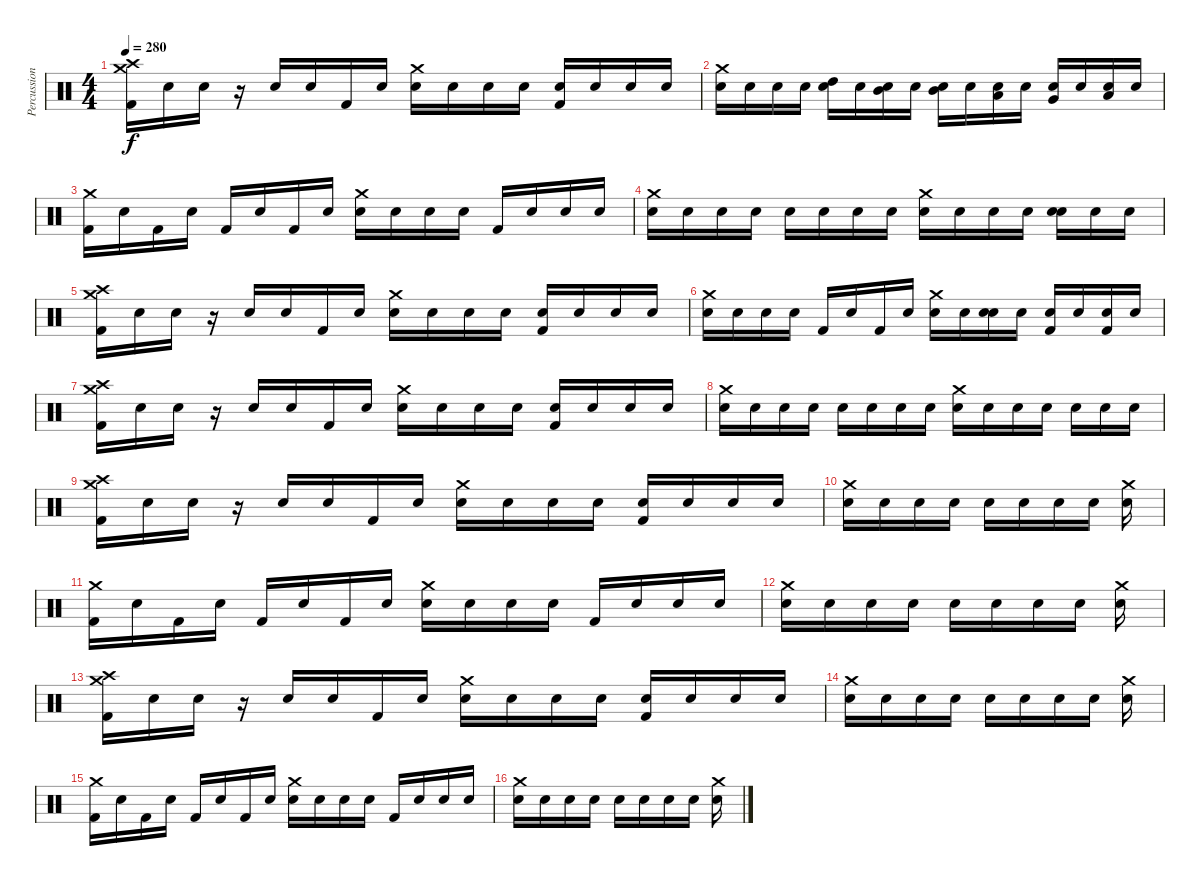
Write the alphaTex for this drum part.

\track ("Percussion" "Percussion") {instrument percussion}
\staff {score}
\articulation defaults
\ts (4 4)
\tempo 280
\clef neutral
\ks c
("Crash high (hit)" "Crash medium (hit)" "Kick (hit) 2").16{dy f} "Snare (hit)".16 "Snare (hit)".16 r.16 "Snare (hit)".16 "Snare (hit)".16 "Kick (hit) 2".16 "Snare (hit)".16 ("Crash medium (hit)" "Snare (hit)").16 "Snare (hit)".16 "Snare (hit)".16 "Snare (hit)".16 ("Kick (hit) 2" "Snare (hit)").16 "Snare (hit)".16 "Snare (hit)".16 "Snare (hit)".16 |
("Snare (hit) 2" "Crash medium (hit)").16 "Snare (hit)".16 "Snare (hit)".16 "Snare (hit)".16 ("High Tom (hit)" "Snare (hit)").16 "Snare (hit)".16 ("Mid Tom (hit)" "Snare (hit)").16 "Snare (hit)".16 ("Mid Tom (hit)" "Snare (hit)").16 "Snare (hit)".16 ("Low Tom (hit)" "Snare (hit)").16 "Snare (hit)".16 ("Very Low Tom (hit)" "Snare (hit)").16 "Snare (hit)".16 ("Low Floor Tom (hit)" "Snare (hit)").16 "Snare (hit)".16 |
("Crash medium (hit)" "Kick (hit) 2").16 "Snare (hit)".16 "Kick (hit) 2".16 "Snare (hit)".16 "Kick (hit) 2".16 "Snare (hit)".16 "Kick (hit) 2".16 "Snare (hit)".16 ("Crash medium (hit)" "Snare (hit)").16 "Snare (hit)".16 "Snare (hit)".16 "Snare (hit)".16 "Kick (hit) 2".16 "Snare (hit)".16 "Snare (hit)".16 "Snare (hit)".16 |
("Crash medium (hit)" "Snare (hit) 2").16 "Snare (hit)".16 "Snare (hit)".16 "Snare (hit)".16 "Snare (hit)".16 "Snare (hit)".16 "Snare (hit)".16 "Snare (hit)".16 ("Crash medium (hit)" "Snare (hit)").16 "Snare (hit)".16 "Snare (hit)".16 "Snare (hit)".16 ("Snare (hit) 2" "Snare (hit)").16 "Snare (hit)".16 "Snare (hit) 2".16 |
("Crash high (hit)" "Crash medium (hit)" "Kick (hit) 2").16 "Snare (hit)".16 "Snare (hit)".16 r.16 "Snare (hit)".16 "Snare (hit)".16 "Kick (hit) 2".16 "Snare (hit)".16 ("Crash medium (hit)" "Snare (hit)").16 "Snare (hit)".16 "Snare (hit)".16 "Snare (hit)".16 ("Kick (hit) 2" "Snare (hit)").16 "Snare (hit)".16 "Snare (hit)".16 "Snare (hit)".16 |
("Snare (hit) 2" "Crash medium (hit)").16 "Snare (hit)".16 "Snare (hit) 2".16 "Snare (hit)".16 "Kick (hit) 2".16 "Snare (hit)".16 "Kick (hit) 2".16 "Snare (hit)".16 ("Snare (hit) 2" "Crash medium (hit)").16 "Snare (hit)".16 ("Snare (hit) 2" "Snare (hit)").16 "Snare (hit)".16 ("Kick (hit) 2" "Snare (hit)").16 "Snare (hit)".16 ("Kick (hit) 2" "Snare (hit)").16 "Snare (hit)".16 |
("Crash high (hit)" "Crash medium (hit)" "Kick (hit) 2").16 "Snare (hit)".16 "Snare (hit)".16 r.16 "Snare (hit)".16 "Snare (hit)".16 "Kick (hit) 2".16 "Snare (hit)".16 ("Crash medium (hit)" "Snare (hit)").16 "Snare (hit)".16 "Snare (hit)".16 "Snare (hit)".16 ("Kick (hit) 2" "Snare (hit)").16 "Snare (hit)".16 "Snare (hit)".16 "Snare (hit)".16 |
("Crash medium (hit)" "Snare (hit) 2").16 "Snare (hit)".16 "Snare (hit)".16 "Snare (hit)".16 "Snare (hit)".16 "Snare (hit)".16 "Snare (hit)".16 "Snare (hit)".16 ("Crash medium (hit)" "Snare (hit)").16 "Snare (hit)".16 "Snare (hit)".16 "Snare (hit)".16 "Snare (hit) 2".16 "Snare (hit)".16 "Snare (hit) 2".16 |
("Crash high (hit)" "Crash medium (hit)" "Kick (hit) 2").16 "Snare (hit)".16 "Snare (hit)".16 r.16 "Snare (hit)".16 "Snare (hit)".16 "Kick (hit) 2".16 "Snare (hit)".16 ("Crash medium (hit)" "Snare (hit)").16 "Snare (hit)".16 "Snare (hit)".16 "Snare (hit)".16 ("Kick (hit) 2" "Snare (hit)").16 "Snare (hit)".16 "Snare (hit)".16 "Snare (hit)".16 |
("Crash medium (hit)" "Snare (hit) 2").16 "Snare (hit)".16 "Snare (hit)".16 "Snare (hit)".16 "Snare (hit)".16 "Snare (hit)".16 "Snare (hit)".16 "Snare (hit)".16 ("Crash medium (hit)" "Snare (hit)").16 |
("Crash medium (hit)" "Kick (hit) 2").16 "Snare (hit)".16 "Kick (hit) 2".16 "Snare (hit)".16 "Kick (hit) 2".16 "Snare (hit)".16 "Kick (hit) 2".16 "Snare (hit)".16 ("Crash medium (hit)" "Snare (hit)").16 "Snare (hit)".16 "Snare (hit)".16 "Snare (hit)".16 "Kick (hit) 2".16 "Snare (hit)".16 "Snare (hit)".16 "Snare (hit)".16 |
("Crash medium (hit)" "Snare (hit) 2").16 "Snare (hit)".16 "Snare (hit)".16 "Snare (hit)".16 "Snare (hit)".16 "Snare (hit)".16 "Snare (hit)".16 "Snare (hit)".16 ("Crash medium (hit)" "Snare (hit)").16 |
("Crash high (hit)" "Crash medium (hit)" "Kick (hit) 2").16 "Snare (hit)".16 "Snare (hit)".16 r.16 "Snare (hit)".16 "Snare (hit)".16 "Kick (hit) 2".16 "Snare (hit)".16 ("Crash medium (hit)" "Snare (hit)").16 "Snare (hit)".16 "Snare (hit)".16 "Snare (hit)".16 ("Kick (hit) 2" "Snare (hit)").16 "Snare (hit)".16 "Snare (hit)".16 "Snare (hit)".16 |
("Crash medium (hit)" "Snare (hit) 2").16 "Snare (hit)".16 "Snare (hit)".16 "Snare (hit)".16 "Snare (hit)".16 "Snare (hit)".16 "Snare (hit)".16 "Snare (hit)".16 ("Crash medium (hit)" "Snare (hit)").16 |
("Crash medium (hit)" "Kick (hit) 2").16 "Snare (hit)".16 "Kick (hit) 2".16 "Snare (hit)".16 "Kick (hit) 2".16 "Snare (hit)".16 "Kick (hit) 2".16 "Snare (hit)".16 ("Crash medium (hit)" "Snare (hit)").16 "Snare (hit)".16 "Snare (hit)".16 "Snare (hit)".16 "Kick (hit) 2".16 "Snare (hit)".16 "Snare (hit)".16 "Snare (hit)".16 |
("Crash medium (hit)" "Snare (hit) 2").16 "Snare (hit)".16 "Snare (hit)".16 "Snare (hit)".16 "Snare (hit)".16 "Snare (hit)".16 "Snare (hit)".16 "Snare (hit)".16 ("Crash medium (hit)" "Snare (hit)").16
